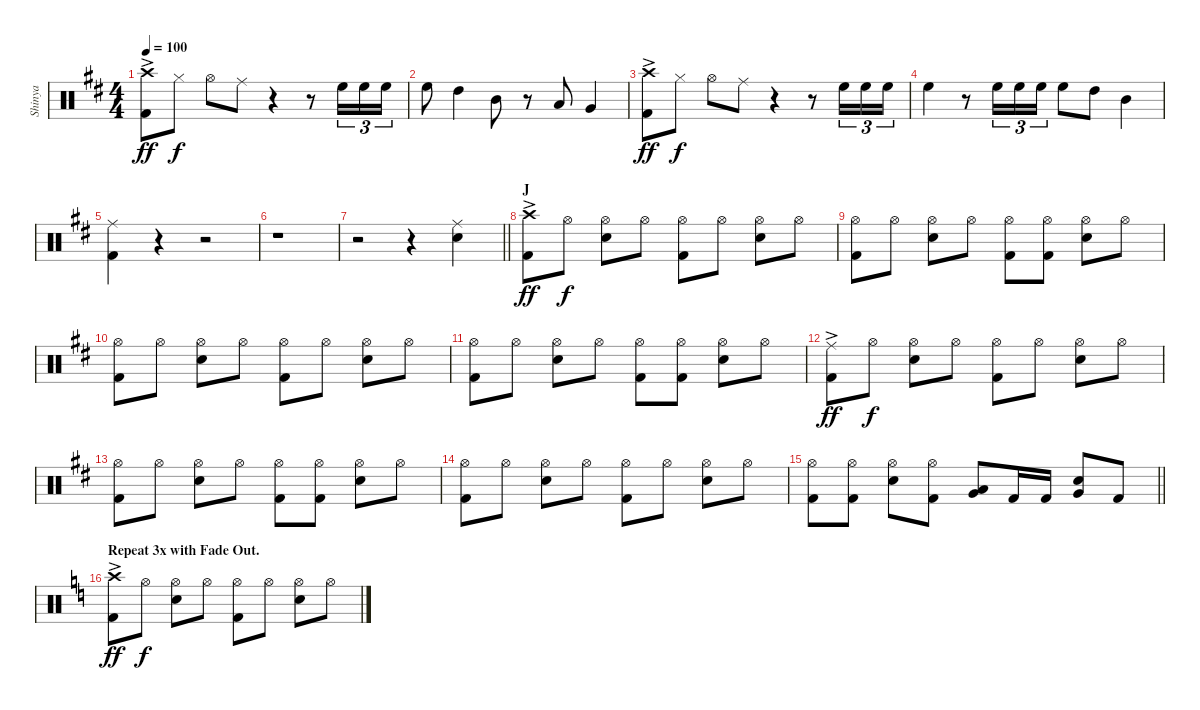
\track ("Shinya" "Shinya") {instrument percussion}
\staff {score}
\articulation defaults
\ts (4 4)
\tempo 100
\clef neutral
\ks d
("Crash high (hit)"{ac} "Kick (hit) 2").8{dy ff} "Hi-Hat (closed)".8{dy f} "Hi-Hat (open)".8 "Ride (middle)".8 r.4 r.8 "High Floor Tom (hit)".16{tu (3 2)} "High Floor Tom (hit)".16{tu (3 2)} "High Floor Tom (hit)".16{tu (3 2)} |
"High Floor Tom (hit)".8 "High Tom (hit)".4 "Mid Tom (hit)".8 r.8 "Low Tom (hit)".8 "Very Low Tom (hit)".4 |
("Crash high (hit)"{ac} "Kick (hit) 2").8{dy ff} "Hi-Hat (closed)".8{dy f} "Hi-Hat (open)".8 "Ride (middle)".8 r.4 r.8 "High Floor Tom (hit)".16{tu (3 2)} "High Floor Tom (hit)".16{tu (3 2)} "High Floor Tom (hit)".16{tu (3 2)} |
"High Floor Tom (hit)".4 r.8 "High Floor Tom (hit)".16{tu (3 2)} "High Floor Tom (hit)".16{tu (3 2)} "High Floor Tom (hit)".16{tu (3 2)} "High Floor Tom (hit)".8 "High Tom (hit)".8 "Mid Tom (hit)".4 |
("Ride (middle)" "Kick (hit) 2").4 r.4 r.2 |
r.1 |
\barLineRight lightlight
r.2 r.4 ("Ride (middle)" "Snare (hit) 2").4 |
\section ("" "J")
("Crash high (hit)"{ac} "Kick (hit) 2").8{dy ff} "Hi-Hat (open)".8{dy f} ("Hi-Hat (open)" "Snare (hit) 2").8 "Hi-Hat (open)".8 ("Hi-Hat (open)" "Kick (hit) 2").8 "Hi-Hat (open)".8 ("Hi-Hat (open)" "Snare (hit) 2").8 "Hi-Hat (open)".8 |
("Hi-Hat (open)" "Kick (hit) 2").8 "Hi-Hat (open)".8 ("Hi-Hat (open)" "Snare (hit) 2").8 "Hi-Hat (open)".8 ("Hi-Hat (open)" "Kick (hit) 2").8 ("Hi-Hat (open)" "Kick (hit) 2").8 ("Hi-Hat (open)" "Snare (hit) 2").8 "Hi-Hat (open)".8 |
("Hi-Hat (open)" "Kick (hit) 2").8 "Hi-Hat (open)".8 ("Hi-Hat (open)" "Snare (hit) 2").8 "Hi-Hat (open)".8 ("Hi-Hat (open)" "Kick (hit) 2").8 "Hi-Hat (open)".8 ("Hi-Hat (open)" "Snare (hit) 2").8 "Hi-Hat (open)".8 |
("Hi-Hat (open)" "Kick (hit) 2").8 "Hi-Hat (open)".8 ("Hi-Hat (open)" "Snare (hit) 2").8 "Hi-Hat (open)".8 ("Hi-Hat (open)" "Kick (hit) 2").8 ("Hi-Hat (open)" "Kick (hit) 2").8 ("Hi-Hat (open)" "Snare (hit) 2").8 "Hi-Hat (open)".8 |
("Ride (middle)"{ac} "Kick (hit) 2").8{dy ff} "Hi-Hat (open)".8{dy f} ("Hi-Hat (open)" "Snare (hit) 2").8 "Hi-Hat (open)".8 ("Hi-Hat (open)" "Kick (hit) 2").8 "Hi-Hat (open)".8 ("Hi-Hat (open)" "Snare (hit) 2").8 "Hi-Hat (open)".8 |
("Hi-Hat (open)" "Kick (hit) 2").8 "Hi-Hat (open)".8 ("Hi-Hat (open)" "Snare (hit) 2").8 "Hi-Hat (open)".8 ("Hi-Hat (open)" "Kick (hit) 2").8 ("Hi-Hat (open)" "Kick (hit) 2").8 ("Hi-Hat (open)" "Snare (hit) 2").8 "Hi-Hat (open)".8 |
("Hi-Hat (open)" "Kick (hit) 2").8 "Hi-Hat (open)".8 ("Hi-Hat (open)" "Snare (hit) 2").8 "Hi-Hat (open)".8 ("Hi-Hat (open)" "Kick (hit) 2").8 "Hi-Hat (open)".8 ("Hi-Hat (open)" "Snare (hit) 2").8 "Hi-Hat (open)".8 |
\barLineRight lightlight
("Hi-Hat (open)" "Kick (hit) 2").8 ("Hi-Hat (open)" "Kick (hit) 2").8 ("Hi-Hat (open)" "Snare (hit) 2").8 ("Hi-Hat (open)" "Kick (hit) 2").8 ("Low Tom (hit)" "Very Low Tom (hit)").8 "Kick (hit) 2".16 "Kick (hit) 2".16 ("Snare (hit) 2" "Very Low Tom (hit)").8 "Kick (hit) 2".8 |
\section ("" "Repeat 3x with Fade Out.")
\ks c
("Crash high (hit)"{ac} "Kick (hit) 2").8{dy ff} "Hi-Hat (open)".8{dy f} ("Hi-Hat (open)" "Snare (hit) 2").8 "Hi-Hat (open)".8 ("Hi-Hat (open)" "Kick (hit) 2").8 "Hi-Hat (open)".8 ("Hi-Hat (open)" "Snare (hit) 2").8 "Hi-Hat (open)".8
